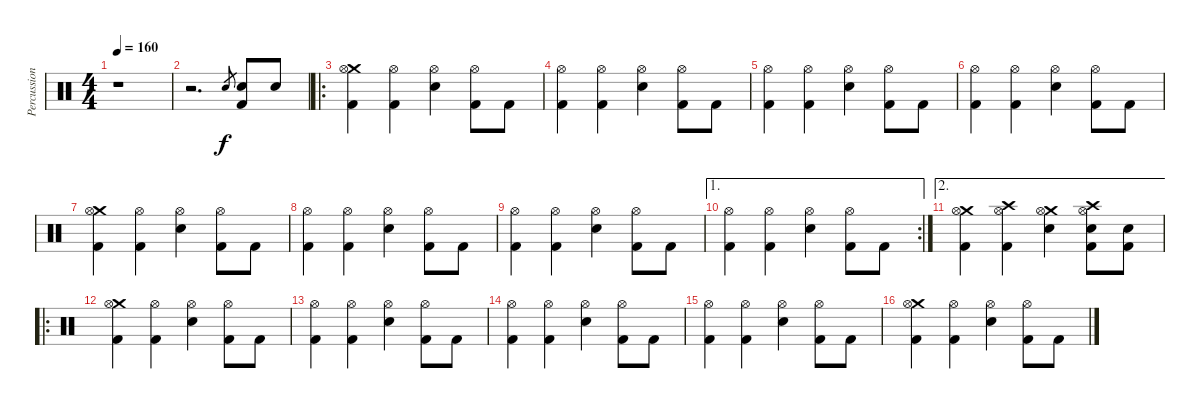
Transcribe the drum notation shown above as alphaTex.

\track ("Percussion" "Percussion") {instrument percussion}
\staff {score}
\articulation defaults
\ts (4 4)
\tempo 160
\clef neutral
\ks c
r.1{dy f} |
r.2{d} "Electric Snare (hit)".8{gr} ("Electric Snare (hit)" "Kick (hit) 2").8 "Electric Snare (hit)".8 |
\ro
("Crash medium (hit)" "Hi-Hat (open)" "Kick (hit) 2").4 ("Hi-Hat (open)" "Kick (hit) 2").4 ("Hi-Hat (open)" "Electric Snare (hit)").4 ("Hi-Hat (open)" "Kick (hit) 2").8 "Kick (hit) 2".8 |
("Hi-Hat (open)" "Kick (hit) 2").4 ("Hi-Hat (open)" "Kick (hit) 2").4 ("Hi-Hat (open)" "Electric Snare (hit)").4 ("Hi-Hat (open)" "Kick (hit) 2").8 "Kick (hit) 2".8 |
("Hi-Hat (open)" "Kick (hit) 2").4 ("Hi-Hat (open)" "Kick (hit) 2").4 ("Hi-Hat (open)" "Electric Snare (hit)").4 ("Hi-Hat (open)" "Kick (hit) 2").8 "Kick (hit) 2".8 |
("Hi-Hat (open)" "Kick (hit) 2").4 ("Hi-Hat (open)" "Kick (hit) 2").4 ("Hi-Hat (open)" "Electric Snare (hit)").4 ("Hi-Hat (open)" "Kick (hit) 2").8 "Kick (hit) 2".8 |
("Crash medium (hit)" "Hi-Hat (open)" "Kick (hit) 2").4 ("Hi-Hat (open)" "Kick (hit) 2").4 ("Hi-Hat (open)" "Electric Snare (hit)").4 ("Hi-Hat (open)" "Kick (hit) 2").8 "Kick (hit) 2".8 |
("Hi-Hat (open)" "Kick (hit) 2").4 ("Hi-Hat (open)" "Kick (hit) 2").4 ("Hi-Hat (open)" "Electric Snare (hit)").4 ("Hi-Hat (open)" "Kick (hit) 2").8 "Kick (hit) 2".8 |
("Hi-Hat (open)" "Kick (hit) 2").4 ("Hi-Hat (open)" "Kick (hit) 2").4 ("Hi-Hat (open)" "Electric Snare (hit)").4 ("Hi-Hat (open)" "Kick (hit) 2").8 "Kick (hit) 2".8 |
\ae 1
\rc 2
("Hi-Hat (open)" "Kick (hit) 2").4 ("Hi-Hat (open)" "Kick (hit) 2").4 ("Hi-Hat (open)" "Electric Snare (hit)").4 ("Hi-Hat (open)" "Kick (hit) 2").8 "Kick (hit) 2".8 |
\ae 2
("Crash medium (hit)" "Hi-Hat (open)" "Kick (hit) 2").4 ("Crash high (hit)" "Hi-Hat (open)" "Kick (hit) 2").4 ("Crash medium (hit)" "Hi-Hat (open)" "Electric Snare (hit)").4 ("Crash high (hit)" "Hi-Hat (open)" "Electric Snare (hit)" "Kick (hit) 2").8 ("Electric Snare (hit)" "Kick (hit) 2").8 |
\ro
("Crash medium (hit)" "Hi-Hat (open)" "Kick (hit) 2").4 ("Hi-Hat (open)" "Kick (hit) 2").4 ("Hi-Hat (open)" "Electric Snare (hit)").4 ("Hi-Hat (open)" "Kick (hit) 2").8 "Kick (hit) 2".8 |
("Hi-Hat (open)" "Kick (hit) 2").4 ("Hi-Hat (open)" "Kick (hit) 2").4 ("Hi-Hat (open)" "Electric Snare (hit)").4 ("Hi-Hat (open)" "Kick (hit) 2").8 "Kick (hit) 2".8 |
("Hi-Hat (open)" "Kick (hit) 2").4 ("Hi-Hat (open)" "Kick (hit) 2").4 ("Hi-Hat (open)" "Electric Snare (hit)").4 ("Hi-Hat (open)" "Kick (hit) 2").8 "Kick (hit) 2".8 |
("Hi-Hat (open)" "Kick (hit) 2").4 ("Hi-Hat (open)" "Kick (hit) 2").4 ("Hi-Hat (open)" "Electric Snare (hit)").4 ("Hi-Hat (open)" "Kick (hit) 2").8 "Kick (hit) 2".8 |
("Crash medium (hit)" "Hi-Hat (open)" "Kick (hit) 2").4 ("Hi-Hat (open)" "Kick (hit) 2").4 ("Hi-Hat (open)" "Electric Snare (hit)").4 ("Hi-Hat (open)" "Kick (hit) 2").8 "Kick (hit) 2".8
